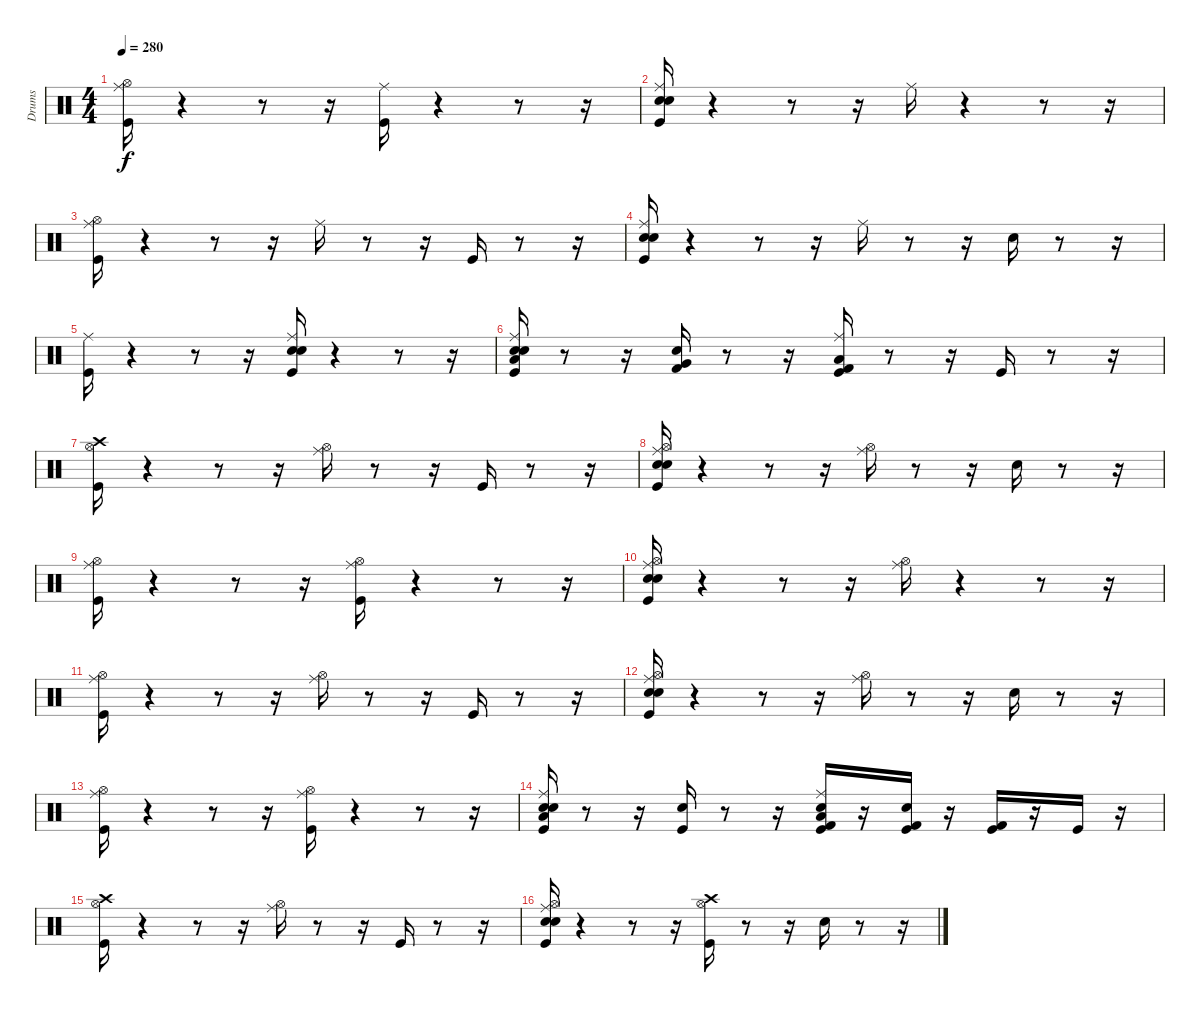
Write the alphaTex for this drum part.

\track ("Drums" "Drums") {instrument percussion}
\staff {score}
\articulation defaults
\ts (4 4)
\tempo 280
\clef neutral
\ks c
("Kick (hit)" "Ride (middle)" "Hi-Hat (open)").16{dy f} r.4 r.8 r.16 ("Kick (hit)" "Ride (middle)").16 r.4 r.8 r.16 |
("Kick (hit)" "Snare (hit) 2" "Electric Snare (hit)" "Ride (middle)").16 r.4 r.8 r.16 "Ride (middle)".16 r.4 r.8 r.16 |
("Kick (hit)" "Ride (middle)" "Hi-Hat (open)").16 r.4 r.8 r.16 "Ride (middle)".16 r.8 r.16 "Kick (hit)".16 r.8 r.16 |
("Kick (hit)" "Snare (hit) 2" "Electric Snare (hit)" "Ride (middle)").16 r.4 r.8 r.16 "Ride (middle)".16 r.8 r.16 "Snare (hit) 2".16 r.8 r.16 |
("Kick (hit)" "Ride (middle)").16 r.4 r.8 r.16 ("Kick (hit)" "Ride (middle)" "Snare (hit) 2" "Electric Snare (hit)").16 r.4 r.8 r.16 |
("Ride (middle)" "Low Tom (hit)" "Kick (hit)" "Snare (hit) 2" "Electric Snare (hit)").16 r.8 r.16 ("Very Low Tom (hit)" "Kick (hit) 2" "Snare (hit) 2").16 r.8 r.16 ("Ride (middle)" "Low Floor Tom (hit)" "Kick (hit)" "Kick (hit) 2").16 r.8 r.16 "Kick (hit)".16 r.8 r.16 |
("Kick (hit)" "Hi-Hat (open)" "Crash high (hit)").16 r.4 r.8 r.16 ("Hi-Hat (open)" "Ride (middle)").16 r.8 r.16 "Kick (hit)".16 r.8 r.16 |
("Hi-Hat (open)" "Kick (hit)" "Snare (hit) 2" "Electric Snare (hit)" "Ride (middle)").16 r.4 r.8 r.16 ("Hi-Hat (open)" "Ride (middle)").16 r.8 r.16 "Snare (hit) 2".16 r.8 r.16 |
("Ride (middle)" "Hi-Hat (open)" "Kick (hit)").16 r.4 r.8 r.16 ("Hi-Hat (open)" "Ride (middle)" "Kick (hit)").16 r.4 r.8 r.16 |
("Ride (middle)" "Hi-Hat (open)" "Kick (hit)" "Snare (hit) 2" "Electric Snare (hit)").16 r.4 r.8 r.16 ("Hi-Hat (open)" "Ride (middle)").16 r.4 r.8 r.16 |
("Hi-Hat (open)" "Kick (hit)" "Ride (middle)").16 r.4 r.8 r.16 ("Hi-Hat (open)" "Ride (middle)").16 r.8 r.16 "Kick (hit)".16 r.8 r.16 |
("Hi-Hat (open)" "Kick (hit)" "Snare (hit) 2" "Electric Snare (hit)" "Ride (middle)").16 r.4 r.8 r.16 ("Hi-Hat (open)" "Ride (middle)").16 r.8 r.16 "Snare (hit) 2".16 r.8 r.16 |
("Ride (middle)" "Hi-Hat (open)" "Kick (hit)").16 r.4 r.8 r.16 ("Hi-Hat (open)" "Ride (middle)" "Kick (hit)").16 r.4 r.8 r.16 |
("Ride (middle)" "Electric Snare (hit)" "Snare (hit) 2" "Kick (hit)" "Low Tom (hit)").16 r.8 r.16 ("Snare (hit) 2" "Kick (hit)").16 r.8 r.16 ("Ride (middle)" "Low Floor Tom (hit)" "Kick (hit)" "Kick (hit) 2" "Snare (hit) 2").16 r.16 ("Kick (hit) 2" "Kick (hit)" "Snare (hit) 2").16 r.16 ("Kick (hit)" "Kick (hit) 2").16 r.16 "Kick (hit)".16 r.16 |
("Crash high (hit)" "Hi-Hat (open)" "Kick (hit)").16 r.4 r.8 r.16 ("Hi-Hat (open)" "Ride (middle)").16 r.8 r.16 "Kick (hit)".16 r.8 r.16 |
("Hi-Hat (open)" "Kick (hit)" "Snare (hit) 2" "Electric Snare (hit)" "Ride (middle)").16 r.4 r.8 r.16 ("Hi-Hat (open)" "Crash high (hit)" "Kick (hit)").16 r.8 r.16 "Snare (hit) 2".16 r.8 r.16
